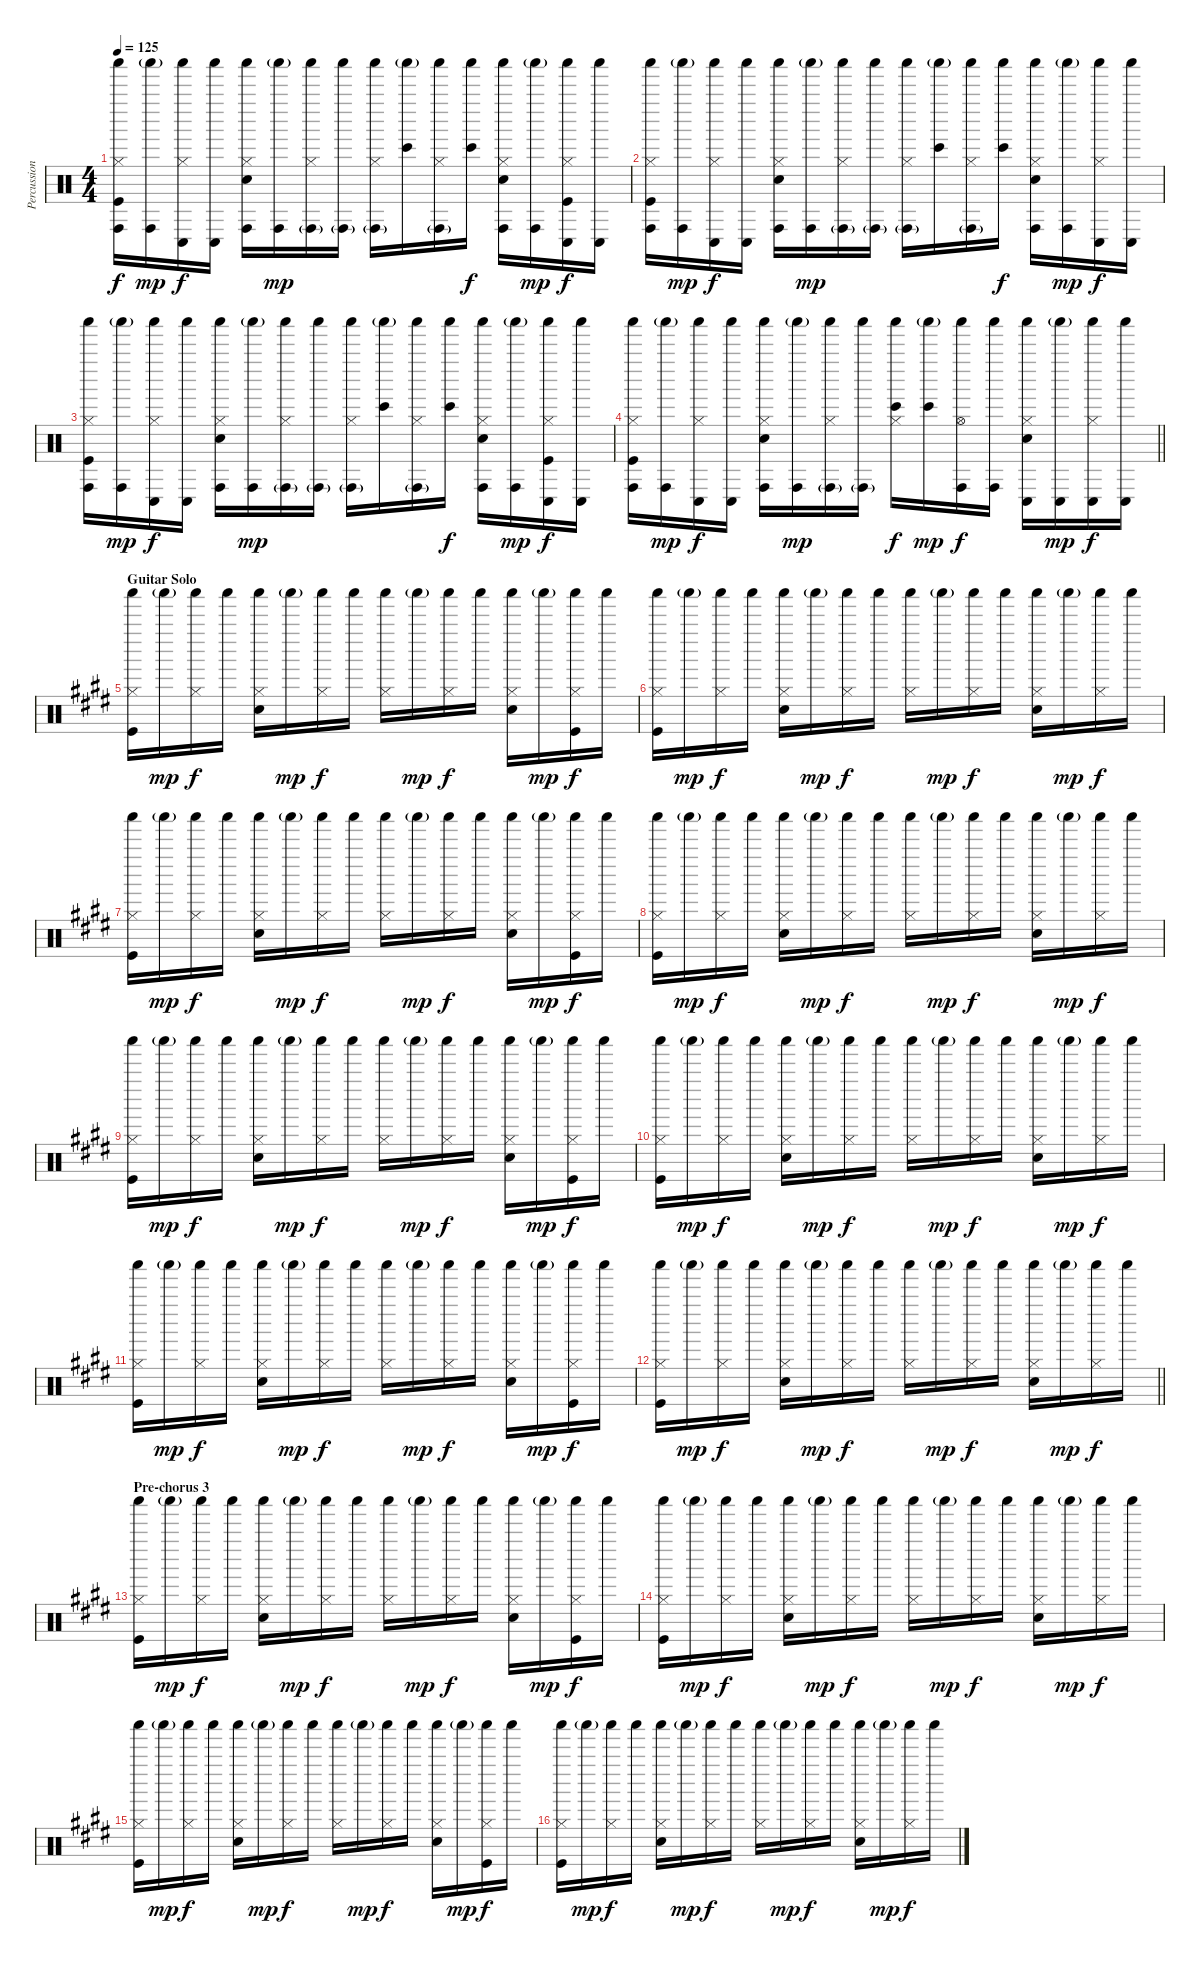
\track ("Percussion" "Percussion") {instrument percussion}
\staff {score}
\articulation defaults
\ts (4 4)
\tempo 125
\clef neutral
\ks c
("Hi-Hat (closed)" "Shaker (hit)" "Conga high (hit)" "Kick (hit)").16{dy f} ("Shaker (hit)"{g} "Conga high (hit)").16{dy mp} ("Hi-Hat (closed)" "Shaker (hit)" "Conga low (hit)").16{dy f} ("Shaker (hit)" "Conga low (hit)").16 ("Hi-Hat (closed)" "Shaker (hit)" "Conga high (hit)" "Electric Snare (hit)").16 ("Shaker (hit)"{g} "Conga high (hit)").16{dy mp} ("Hi-Hat (closed)" "Shaker (hit)" "Conga high (hit)"{g}).16 ("Shaker (hit)" "Conga high (hit)"{g}).16 ("Hi-Hat (closed)" "Shaker (hit)" "Conga high (hit)"{g}).16 ("Shaker (hit)"{g} "Bongo High (hit)").16 ("Hi-Hat (closed)" "Shaker (hit)" "Conga high (hit)"{g}).16 ("Shaker (hit)" "Bongo High (hit)").16{dy f} ("Hi-Hat (closed)" "Shaker (hit)" "Conga high (hit)" "Electric Snare (hit)").16 ("Shaker (hit)"{g} "Conga high (hit)").16{dy mp} ("Hi-Hat (closed)" "Shaker (hit)" "Conga low (hit)" "Kick (hit)").16{dy f} ("Shaker (hit)" "Conga low (hit)").16 |
("Hi-Hat (closed)" "Shaker (hit)" "Conga high (hit)" "Kick (hit)").16 ("Shaker (hit)"{g} "Conga high (hit)").16{dy mp} ("Hi-Hat (closed)" "Shaker (hit)" "Conga low (hit)").16{dy f} ("Shaker (hit)" "Conga low (hit)").16 ("Hi-Hat (closed)" "Shaker (hit)" "Conga high (hit)" "Electric Snare (hit)").16 ("Shaker (hit)"{g} "Conga high (hit)").16{dy mp} ("Hi-Hat (closed)" "Shaker (hit)" "Conga high (hit)"{g}).16 ("Shaker (hit)" "Conga high (hit)"{g}).16 ("Hi-Hat (closed)" "Shaker (hit)" "Conga high (hit)"{g}).16 ("Shaker (hit)"{g} "Bongo High (hit)").16 ("Hi-Hat (closed)" "Shaker (hit)" "Conga high (hit)"{g}).16 ("Shaker (hit)" "Bongo High (hit)").16{dy f} ("Hi-Hat (closed)" "Shaker (hit)" "Conga high (hit)" "Electric Snare (hit)").16 ("Shaker (hit)"{g} "Conga high (hit)").16{dy mp} ("Hi-Hat (closed)" "Shaker (hit)" "Conga low (hit)").16{dy f} ("Shaker (hit)" "Conga low (hit)").16 |
("Hi-Hat (closed)" "Shaker (hit)" "Conga high (hit)" "Kick (hit)").16 ("Shaker (hit)"{g} "Conga high (hit)").16{dy mp} ("Hi-Hat (closed)" "Shaker (hit)" "Conga low (hit)").16{dy f} ("Shaker (hit)" "Conga low (hit)").16 ("Hi-Hat (closed)" "Shaker (hit)" "Conga high (hit)" "Electric Snare (hit)").16 ("Shaker (hit)"{g} "Conga high (hit)").16{dy mp} ("Hi-Hat (closed)" "Shaker (hit)" "Conga high (hit)"{g}).16 ("Shaker (hit)" "Conga high (hit)"{g}).16 ("Hi-Hat (closed)" "Shaker (hit)" "Conga high (hit)"{g}).16 ("Shaker (hit)"{g} "Bongo High (hit)").16 ("Hi-Hat (closed)" "Shaker (hit)" "Conga high (hit)"{g}).16 ("Shaker (hit)" "Bongo High (hit)").16{dy f} ("Hi-Hat (closed)" "Shaker (hit)" "Conga high (hit)" "Electric Snare (hit)").16 ("Shaker (hit)"{g} "Conga high (hit)").16{dy mp} ("Hi-Hat (closed)" "Shaker (hit)" "Conga low (hit)" "Kick (hit)").16{dy f} ("Shaker (hit)" "Conga low (hit)").16 |
\barLineRight lightlight
("Hi-Hat (closed)" "Shaker (hit)" "Conga high (hit)" "Kick (hit)").16 ("Shaker (hit)"{g} "Conga high (hit)").16{dy mp} ("Hi-Hat (closed)" "Shaker (hit)" "Conga low (hit)").16{dy f} ("Shaker (hit)" "Conga low (hit)").16 ("Hi-Hat (closed)" "Shaker (hit)" "Conga high (hit)" "Electric Snare (hit)").16 ("Shaker (hit)"{g} "Conga high (hit)").16{dy mp} ("Hi-Hat (closed)" "Shaker (hit)" "Conga high (hit)"{g}).16 ("Shaker (hit)" "Conga high (hit)"{g}).16 ("Hi-Hat (closed)" "Bongo High (hit)" "Shaker (hit)").16{dy f} ("Bongo High (hit)" "Shaker (hit)"{g}).16{dy mp} ("Hi-Hat (open)" "Conga high (hit)" "Shaker (hit)").16{dy f} ("Conga high (hit)" "Shaker (hit)").16 ("Hi-Hat (closed)" "Conga low (hit)" "Shaker (hit)" "Electric Snare (hit)").16 ("Conga low (hit)" "Shaker (hit)"{g}).16{dy mp} ("Hi-Hat (closed)" "Conga low (hit)" "Shaker (hit)").16{dy f} ("Conga low (hit)" "Shaker (hit)").16 |
\section ("" "Guitar Solo")
\ks c#minor
("Hi-Hat (closed)" "Shaker (hit)" "Kick (hit)").16 "Shaker (hit)"{g}.16{dy mp} ("Hi-Hat (closed)" "Shaker (hit)").16{dy f} "Shaker (hit)".16 ("Hi-Hat (closed)" "Shaker (hit)" "Electric Snare (hit)").16 "Shaker (hit)"{g}.16{dy mp} ("Hi-Hat (closed)" "Shaker (hit)").16{dy f} "Shaker (hit)".16 ("Hi-Hat (closed)" "Shaker (hit)").16 "Shaker (hit)"{g}.16{dy mp} ("Hi-Hat (closed)" "Shaker (hit)").16{dy f} "Shaker (hit)".16 ("Hi-Hat (closed)" "Shaker (hit)" "Electric Snare (hit)").16 "Shaker (hit)"{g}.16{dy mp} ("Hi-Hat (closed)" "Shaker (hit)" "Kick (hit)").16{dy f} "Shaker (hit)".16 |
("Hi-Hat (closed)" "Shaker (hit)" "Kick (hit)").16 "Shaker (hit)"{g}.16{dy mp} ("Hi-Hat (closed)" "Shaker (hit)").16{dy f} "Shaker (hit)".16 ("Hi-Hat (closed)" "Shaker (hit)" "Electric Snare (hit)").16 "Shaker (hit)"{g}.16{dy mp} ("Hi-Hat (closed)" "Shaker (hit)").16{dy f} "Shaker (hit)".16 ("Hi-Hat (closed)" "Shaker (hit)").16 "Shaker (hit)"{g}.16{dy mp} ("Hi-Hat (closed)" "Shaker (hit)").16{dy f} "Shaker (hit)".16 ("Hi-Hat (closed)" "Shaker (hit)" "Electric Snare (hit)").16 "Shaker (hit)"{g}.16{dy mp} ("Hi-Hat (closed)" "Shaker (hit)").16{dy f} "Shaker (hit)".16 |
("Hi-Hat (closed)" "Shaker (hit)" "Kick (hit)").16 "Shaker (hit)"{g}.16{dy mp} ("Hi-Hat (closed)" "Shaker (hit)").16{dy f} "Shaker (hit)".16 ("Hi-Hat (closed)" "Shaker (hit)" "Electric Snare (hit)").16 "Shaker (hit)"{g}.16{dy mp} ("Hi-Hat (closed)" "Shaker (hit)").16{dy f} "Shaker (hit)".16 ("Hi-Hat (closed)" "Shaker (hit)").16 "Shaker (hit)"{g}.16{dy mp} ("Hi-Hat (closed)" "Shaker (hit)").16{dy f} "Shaker (hit)".16 ("Hi-Hat (closed)" "Shaker (hit)" "Electric Snare (hit)").16 "Shaker (hit)"{g}.16{dy mp} ("Hi-Hat (closed)" "Shaker (hit)" "Kick (hit)").16{dy f} "Shaker (hit)".16 |
("Hi-Hat (closed)" "Shaker (hit)" "Kick (hit)").16 "Shaker (hit)"{g}.16{dy mp} ("Hi-Hat (closed)" "Shaker (hit)").16{dy f} "Shaker (hit)".16 ("Hi-Hat (closed)" "Shaker (hit)" "Electric Snare (hit)").16 "Shaker (hit)"{g}.16{dy mp} ("Hi-Hat (closed)" "Shaker (hit)").16{dy f} "Shaker (hit)".16 ("Hi-Hat (closed)" "Shaker (hit)").16 "Shaker (hit)"{g}.16{dy mp} ("Hi-Hat (closed)" "Shaker (hit)").16{dy f} "Shaker (hit)".16 ("Hi-Hat (closed)" "Shaker (hit)" "Electric Snare (hit)").16 "Shaker (hit)"{g}.16{dy mp} ("Hi-Hat (closed)" "Shaker (hit)").16{dy f} "Shaker (hit)".16 |
("Hi-Hat (closed)" "Shaker (hit)" "Kick (hit)").16 "Shaker (hit)"{g}.16{dy mp} ("Hi-Hat (closed)" "Shaker (hit)").16{dy f} "Shaker (hit)".16 ("Hi-Hat (closed)" "Shaker (hit)" "Electric Snare (hit)").16 "Shaker (hit)"{g}.16{dy mp} ("Hi-Hat (closed)" "Shaker (hit)").16{dy f} "Shaker (hit)".16 ("Hi-Hat (closed)" "Shaker (hit)").16 "Shaker (hit)"{g}.16{dy mp} ("Hi-Hat (closed)" "Shaker (hit)").16{dy f} "Shaker (hit)".16 ("Hi-Hat (closed)" "Shaker (hit)" "Electric Snare (hit)").16 "Shaker (hit)"{g}.16{dy mp} ("Hi-Hat (closed)" "Shaker (hit)" "Kick (hit)").16{dy f} "Shaker (hit)".16 |
("Hi-Hat (closed)" "Shaker (hit)" "Kick (hit)").16 "Shaker (hit)"{g}.16{dy mp} ("Hi-Hat (closed)" "Shaker (hit)").16{dy f} "Shaker (hit)".16 ("Hi-Hat (closed)" "Shaker (hit)" "Electric Snare (hit)").16 "Shaker (hit)"{g}.16{dy mp} ("Hi-Hat (closed)" "Shaker (hit)").16{dy f} "Shaker (hit)".16 ("Hi-Hat (closed)" "Shaker (hit)").16 "Shaker (hit)"{g}.16{dy mp} ("Hi-Hat (closed)" "Shaker (hit)").16{dy f} "Shaker (hit)".16 ("Hi-Hat (closed)" "Shaker (hit)" "Electric Snare (hit)").16 "Shaker (hit)"{g}.16{dy mp} ("Hi-Hat (closed)" "Shaker (hit)").16{dy f} "Shaker (hit)".16 |
("Hi-Hat (closed)" "Shaker (hit)" "Kick (hit)").16 "Shaker (hit)"{g}.16{dy mp} ("Hi-Hat (closed)" "Shaker (hit)").16{dy f} "Shaker (hit)".16 ("Hi-Hat (closed)" "Shaker (hit)" "Electric Snare (hit)").16 "Shaker (hit)"{g}.16{dy mp} ("Hi-Hat (closed)" "Shaker (hit)").16{dy f} "Shaker (hit)".16 ("Hi-Hat (closed)" "Shaker (hit)").16 "Shaker (hit)"{g}.16{dy mp} ("Hi-Hat (closed)" "Shaker (hit)").16{dy f} "Shaker (hit)".16 ("Hi-Hat (closed)" "Shaker (hit)" "Electric Snare (hit)").16 "Shaker (hit)"{g}.16{dy mp} ("Hi-Hat (closed)" "Shaker (hit)" "Kick (hit)").16{dy f} "Shaker (hit)".16 |
\barLineRight lightlight
("Hi-Hat (closed)" "Shaker (hit)" "Kick (hit)").16 "Shaker (hit)"{g}.16{dy mp} ("Hi-Hat (closed)" "Shaker (hit)").16{dy f} "Shaker (hit)".16 ("Hi-Hat (closed)" "Shaker (hit)" "Electric Snare (hit)").16 "Shaker (hit)"{g}.16{dy mp} ("Hi-Hat (closed)" "Shaker (hit)").16{dy f} "Shaker (hit)".16 ("Hi-Hat (closed)" "Shaker (hit)").16 "Shaker (hit)"{g}.16{dy mp} ("Hi-Hat (closed)" "Shaker (hit)").16{dy f} "Shaker (hit)".16 ("Hi-Hat (closed)" "Shaker (hit)" "Electric Snare (hit)").16 "Shaker (hit)"{g}.16{dy mp} ("Hi-Hat (closed)" "Shaker (hit)").16{dy f} "Shaker (hit)".16 |
\section ("" "Pre-chorus 3")
("Hi-Hat (closed)" "Shaker (hit)" "Kick (hit)").16 "Shaker (hit)"{g}.16{dy mp} ("Hi-Hat (closed)" "Shaker (hit)").16{dy f} "Shaker (hit)".16 ("Hi-Hat (closed)" "Shaker (hit)" "Electric Snare (hit)").16 "Shaker (hit)"{g}.16{dy mp} ("Hi-Hat (closed)" "Shaker (hit)").16{dy f} "Shaker (hit)".16 ("Hi-Hat (closed)" "Shaker (hit)").16 "Shaker (hit)"{g}.16{dy mp} ("Hi-Hat (closed)" "Shaker (hit)").16{dy f} "Shaker (hit)".16 ("Hi-Hat (closed)" "Shaker (hit)" "Electric Snare (hit)").16 "Shaker (hit)"{g}.16{dy mp} ("Hi-Hat (closed)" "Shaker (hit)" "Kick (hit)").16{dy f} "Shaker (hit)".16 |
("Hi-Hat (closed)" "Shaker (hit)" "Kick (hit)").16 "Shaker (hit)"{g}.16{dy mp} ("Hi-Hat (closed)" "Shaker (hit)").16{dy f} "Shaker (hit)".16 ("Hi-Hat (closed)" "Shaker (hit)" "Electric Snare (hit)").16 "Shaker (hit)"{g}.16{dy mp} ("Hi-Hat (closed)" "Shaker (hit)").16{dy f} "Shaker (hit)".16 ("Hi-Hat (closed)" "Shaker (hit)").16 "Shaker (hit)"{g}.16{dy mp} ("Hi-Hat (closed)" "Shaker (hit)").16{dy f} "Shaker (hit)".16 ("Hi-Hat (closed)" "Shaker (hit)" "Electric Snare (hit)").16 "Shaker (hit)"{g}.16{dy mp} ("Hi-Hat (closed)" "Shaker (hit)").16{dy f} "Shaker (hit)".16 |
("Hi-Hat (closed)" "Shaker (hit)" "Kick (hit)").16 "Shaker (hit)"{g}.16{dy mp} ("Hi-Hat (closed)" "Shaker (hit)").16{dy f} "Shaker (hit)".16 ("Hi-Hat (closed)" "Shaker (hit)" "Electric Snare (hit)").16 "Shaker (hit)"{g}.16{dy mp} ("Hi-Hat (closed)" "Shaker (hit)").16{dy f} "Shaker (hit)".16 ("Hi-Hat (closed)" "Shaker (hit)").16 "Shaker (hit)"{g}.16{dy mp} ("Hi-Hat (closed)" "Shaker (hit)").16{dy f} "Shaker (hit)".16 ("Hi-Hat (closed)" "Shaker (hit)" "Electric Snare (hit)").16 "Shaker (hit)"{g}.16{dy mp} ("Hi-Hat (closed)" "Shaker (hit)" "Kick (hit)").16{dy f} "Shaker (hit)".16 |
("Hi-Hat (closed)" "Shaker (hit)" "Kick (hit)").16 "Shaker (hit)"{g}.16{dy mp} ("Hi-Hat (closed)" "Shaker (hit)").16{dy f} "Shaker (hit)".16 ("Hi-Hat (closed)" "Shaker (hit)" "Electric Snare (hit)").16 "Shaker (hit)"{g}.16{dy mp} ("Hi-Hat (closed)" "Shaker (hit)").16{dy f} "Shaker (hit)".16 ("Hi-Hat (closed)" "Shaker (hit)").16 "Shaker (hit)"{g}.16{dy mp} ("Hi-Hat (closed)" "Shaker (hit)").16{dy f} "Shaker (hit)".16 ("Hi-Hat (closed)" "Shaker (hit)" "Electric Snare (hit)").16 "Shaker (hit)"{g}.16{dy mp} ("Hi-Hat (closed)" "Shaker (hit)").16{dy f} "Shaker (hit)".16
